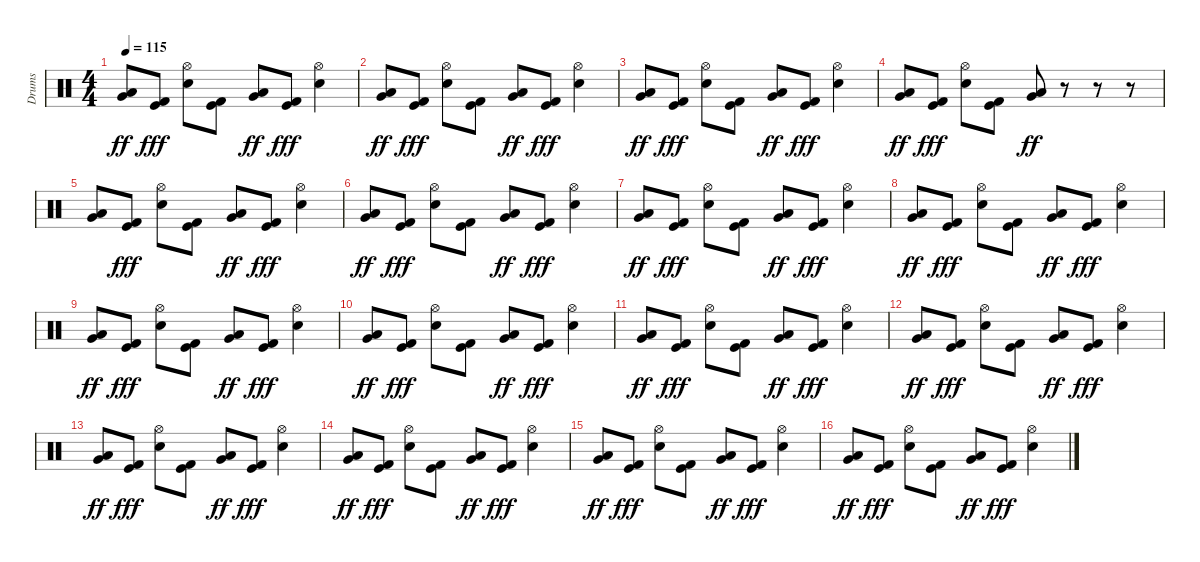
\track ("Drums" "Drums") {instrument percussion}
\staff {score}
\articulation defaults
\ts (4 4)
\tempo 115
\clef neutral
\ks c
("Low Tom (hit)" "Very Low Tom (hit)").8{bd 120 dy ff} ("Kick (hit)" "Kick (hit) 2").8{dy fff} ("Hi-Hat (open)" "Electric Snare (hit)").8 ("Kick (hit)" "Kick (hit) 2").8 ("Low Tom (hit)" "Very Low Tom (hit)").8{bd 120 dy ff} ("Kick (hit)" "Kick (hit) 2").8{dy fff} ("Hi-Hat (open)" "Electric Snare (hit)").4 |
("Low Tom (hit)" "Very Low Tom (hit)").8{bd 120 dy ff} ("Kick (hit)" "Kick (hit) 2").8{dy fff} ("Hi-Hat (open)" "Electric Snare (hit)").8 ("Kick (hit)" "Kick (hit) 2").8 ("Low Tom (hit)" "Very Low Tom (hit)").8{bd 120 dy ff} ("Kick (hit)" "Kick (hit) 2").8{dy fff} ("Hi-Hat (open)" "Electric Snare (hit)").4 |
("Low Tom (hit)" "Very Low Tom (hit)").8{bd 120 dy ff} ("Kick (hit)" "Kick (hit) 2").8{dy fff} ("Hi-Hat (open)" "Electric Snare (hit)").8 ("Kick (hit)" "Kick (hit) 2").8 ("Low Tom (hit)" "Very Low Tom (hit)").8{bd 120 dy ff} ("Kick (hit)" "Kick (hit) 2").8{dy fff} ("Hi-Hat (open)" "Electric Snare (hit)").4 |
("Low Tom (hit)" "Very Low Tom (hit)").8{bd 120 dy ff} ("Kick (hit)" "Kick (hit) 2").8{dy fff} ("Hi-Hat (open)" "Electric Snare (hit)").8 ("Kick (hit)" "Kick (hit) 2").8 ("Low Tom (hit)" "Very Low Tom (hit)").8{bd 120 dy ff} r.8 r.8 r.8 |
("Low Tom (hit)" "Very Low Tom (hit)").8{bd 120} ("Kick (hit)" "Kick (hit) 2").8{dy fff} ("Hi-Hat (open)" "Electric Snare (hit)").8 ("Kick (hit)" "Kick (hit) 2").8 ("Low Tom (hit)" "Very Low Tom (hit)").8{bd 120 dy ff} ("Kick (hit)" "Kick (hit) 2").8{dy fff} ("Hi-Hat (open)" "Electric Snare (hit)").4 |
("Low Tom (hit)" "Very Low Tom (hit)").8{bd 120 dy ff} ("Kick (hit)" "Kick (hit) 2").8{dy fff} ("Hi-Hat (open)" "Electric Snare (hit)").8 ("Kick (hit)" "Kick (hit) 2").8 ("Low Tom (hit)" "Very Low Tom (hit)").8{bd 120 dy ff} ("Kick (hit)" "Kick (hit) 2").8{dy fff} ("Hi-Hat (open)" "Electric Snare (hit)").4 |
("Low Tom (hit)" "Very Low Tom (hit)").8{bd 120 dy ff} ("Kick (hit)" "Kick (hit) 2").8{dy fff} ("Hi-Hat (open)" "Electric Snare (hit)").8 ("Kick (hit)" "Kick (hit) 2").8 ("Low Tom (hit)" "Very Low Tom (hit)").8{bd 120 dy ff} ("Kick (hit)" "Kick (hit) 2").8{dy fff} ("Hi-Hat (open)" "Electric Snare (hit)").4 |
("Low Tom (hit)" "Very Low Tom (hit)").8{bd 120 dy ff} ("Kick (hit)" "Kick (hit) 2").8{dy fff} ("Hi-Hat (open)" "Electric Snare (hit)").8 ("Kick (hit)" "Kick (hit) 2").8 ("Low Tom (hit)" "Very Low Tom (hit)").8{bd 120 dy ff} ("Kick (hit)" "Kick (hit) 2").8{dy fff} ("Hi-Hat (open)" "Electric Snare (hit)").4 |
("Low Tom (hit)" "Very Low Tom (hit)").8{bd 120 dy ff} ("Kick (hit)" "Kick (hit) 2").8{dy fff} ("Hi-Hat (open)" "Electric Snare (hit)").8 ("Kick (hit)" "Kick (hit) 2").8 ("Low Tom (hit)" "Very Low Tom (hit)").8{bd 120 dy ff} ("Kick (hit)" "Kick (hit) 2").8{dy fff} ("Hi-Hat (open)" "Electric Snare (hit)").4 |
("Low Tom (hit)" "Very Low Tom (hit)").8{bd 120 dy ff} ("Kick (hit)" "Kick (hit) 2").8{dy fff} ("Hi-Hat (open)" "Electric Snare (hit)").8 ("Kick (hit)" "Kick (hit) 2").8 ("Low Tom (hit)" "Very Low Tom (hit)").8{bd 120 dy ff} ("Kick (hit)" "Kick (hit) 2").8{dy fff} ("Hi-Hat (open)" "Electric Snare (hit)").4 |
("Low Tom (hit)" "Very Low Tom (hit)").8{bd 120 dy ff} ("Kick (hit)" "Kick (hit) 2").8{dy fff} ("Hi-Hat (open)" "Electric Snare (hit)").8 ("Kick (hit)" "Kick (hit) 2").8 ("Low Tom (hit)" "Very Low Tom (hit)").8{bd 120 dy ff} ("Kick (hit)" "Kick (hit) 2").8{dy fff} ("Hi-Hat (open)" "Electric Snare (hit)").4 |
("Low Tom (hit)" "Very Low Tom (hit)").8{bd 120 dy ff} ("Kick (hit)" "Kick (hit) 2").8{dy fff} ("Hi-Hat (open)" "Electric Snare (hit)").8 ("Kick (hit)" "Kick (hit) 2").8 ("Low Tom (hit)" "Very Low Tom (hit)").8{bd 120 dy ff} ("Kick (hit)" "Kick (hit) 2").8{dy fff} ("Hi-Hat (open)" "Electric Snare (hit)").4 |
("Low Tom (hit)" "Very Low Tom (hit)").8{bd 120 dy ff} ("Kick (hit)" "Kick (hit) 2").8{dy fff} ("Hi-Hat (open)" "Electric Snare (hit)").8 ("Kick (hit)" "Kick (hit) 2").8 ("Low Tom (hit)" "Very Low Tom (hit)").8{bd 120 dy ff} ("Kick (hit)" "Kick (hit) 2").8{dy fff} ("Hi-Hat (open)" "Electric Snare (hit)").4 |
("Low Tom (hit)" "Very Low Tom (hit)").8{bd 120 dy ff} ("Kick (hit)" "Kick (hit) 2").8{dy fff} ("Hi-Hat (open)" "Electric Snare (hit)").8 ("Kick (hit)" "Kick (hit) 2").8 ("Low Tom (hit)" "Very Low Tom (hit)").8{bd 120 dy ff} ("Kick (hit)" "Kick (hit) 2").8{dy fff} ("Hi-Hat (open)" "Electric Snare (hit)").4 |
("Low Tom (hit)" "Very Low Tom (hit)").8{bd 120 dy ff} ("Kick (hit)" "Kick (hit) 2").8{dy fff} ("Hi-Hat (open)" "Electric Snare (hit)").8 ("Kick (hit)" "Kick (hit) 2").8 ("Low Tom (hit)" "Very Low Tom (hit)").8{bd 120 dy ff} ("Kick (hit)" "Kick (hit) 2").8{dy fff} ("Hi-Hat (open)" "Electric Snare (hit)").4 |
("Low Tom (hit)" "Very Low Tom (hit)").8{bd 120 dy ff} ("Kick (hit)" "Kick (hit) 2").8{dy fff} ("Hi-Hat (open)" "Electric Snare (hit)").8 ("Kick (hit)" "Kick (hit) 2").8 ("Low Tom (hit)" "Very Low Tom (hit)").8{bd 120 dy ff} ("Kick (hit)" "Kick (hit) 2").8{dy fff} ("Hi-Hat (open)" "Electric Snare (hit)").4
